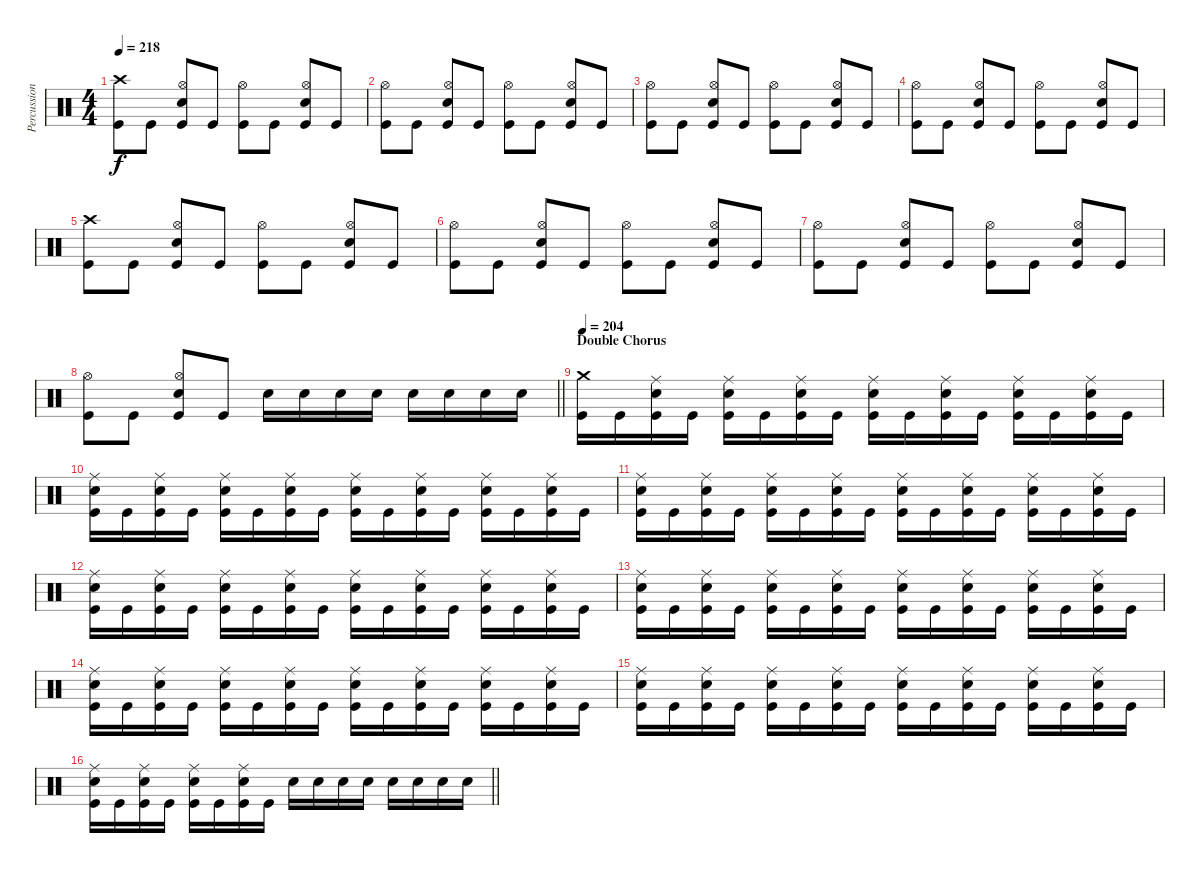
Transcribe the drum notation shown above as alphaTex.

\track ("Percussion" "Percussion") {instrument percussion}
\staff {score}
\articulation defaults
\ts (4 4)
\tempo 218
\clef neutral
\ks c
("Crash high (hit)" "Kick (hit)").8{dy f} "Kick (hit)".8 ("Hi-Hat (open)" "Electric Snare (hit)" "Kick (hit)").8 "Kick (hit)".8 ("Hi-Hat (open)" "Kick (hit)").8 "Kick (hit)".8 ("Hi-Hat (open)" "Electric Snare (hit)" "Kick (hit)").8 "Kick (hit)".8 |
("Hi-Hat (open)" "Kick (hit)").8 "Kick (hit)".8 ("Hi-Hat (open)" "Electric Snare (hit)" "Kick (hit)").8 "Kick (hit)".8 ("Hi-Hat (open)" "Kick (hit)").8 "Kick (hit)".8 ("Hi-Hat (open)" "Electric Snare (hit)" "Kick (hit)").8 "Kick (hit)".8 |
("Hi-Hat (open)" "Kick (hit)").8 "Kick (hit)".8 ("Hi-Hat (open)" "Electric Snare (hit)" "Kick (hit)").8 "Kick (hit)".8 ("Hi-Hat (open)" "Kick (hit)").8 "Kick (hit)".8 ("Hi-Hat (open)" "Electric Snare (hit)" "Kick (hit)").8 "Kick (hit)".8 |
("Hi-Hat (open)" "Kick (hit)").8 "Kick (hit)".8 ("Hi-Hat (open)" "Electric Snare (hit)" "Kick (hit)").8 "Kick (hit)".8 ("Hi-Hat (open)" "Kick (hit)").8 "Kick (hit)".8 ("Hi-Hat (open)" "Electric Snare (hit)" "Kick (hit)").8 "Kick (hit)".8 |
("Crash high (hit)" "Kick (hit)").8 "Kick (hit)".8 ("Hi-Hat (open)" "Electric Snare (hit)" "Kick (hit)").8 "Kick (hit)".8 ("Hi-Hat (open)" "Kick (hit)").8 "Kick (hit)".8 ("Hi-Hat (open)" "Electric Snare (hit)" "Kick (hit)").8 "Kick (hit)".8 |
("Hi-Hat (open)" "Kick (hit)").8 "Kick (hit)".8 ("Hi-Hat (open)" "Electric Snare (hit)" "Kick (hit)").8 "Kick (hit)".8 ("Hi-Hat (open)" "Kick (hit)").8 "Kick (hit)".8 ("Hi-Hat (open)" "Electric Snare (hit)" "Kick (hit)").8 "Kick (hit)".8 |
("Hi-Hat (open)" "Kick (hit)").8 "Kick (hit)".8 ("Hi-Hat (open)" "Electric Snare (hit)" "Kick (hit)").8 "Kick (hit)".8 ("Hi-Hat (open)" "Kick (hit)").8 "Kick (hit)".8 ("Hi-Hat (open)" "Electric Snare (hit)" "Kick (hit)").8 "Kick (hit)".8 |
\barLineRight lightlight
("Hi-Hat (open)" "Kick (hit)").8 "Kick (hit)".8 ("Hi-Hat (open)" "Electric Snare (hit)" "Kick (hit)").8 "Kick (hit)".8 "Electric Snare (hit)".16 "Electric Snare (hit)".16 "Electric Snare (hit)".16 "Electric Snare (hit)".16 "Electric Snare (hit)".16 "Electric Snare (hit)".16 "Electric Snare (hit)".16 "Electric Snare (hit)".16 |
\section ("" "Double Chorus")
\tempo 204
("Crash medium (hit)" "Kick (hit)").16 "Kick (hit)".16 ("Ride (middle)" "Electric Snare (hit)" "Kick (hit)").16 "Kick (hit)".16 ("Ride (middle)" "Electric Snare (hit)" "Kick (hit)").16 "Kick (hit)".16 ("Ride (middle)" "Electric Snare (hit)" "Kick (hit)").16 "Kick (hit)".16 ("Ride (middle)" "Electric Snare (hit)" "Kick (hit)").16 "Kick (hit)".16 ("Ride (middle)" "Electric Snare (hit)" "Kick (hit)").16 "Kick (hit)".16 ("Ride (middle)" "Electric Snare (hit)" "Kick (hit)").16 "Kick (hit)".16 ("Ride (middle)" "Electric Snare (hit)" "Kick (hit)").16 "Kick (hit)".16 |
("Ride (middle)" "Electric Snare (hit)" "Kick (hit)").16 "Kick (hit)".16 ("Ride (middle)" "Electric Snare (hit)" "Kick (hit)").16 "Kick (hit)".16 ("Ride (middle)" "Electric Snare (hit)" "Kick (hit)").16 "Kick (hit)".16 ("Ride (middle)" "Electric Snare (hit)" "Kick (hit)").16 "Kick (hit)".16 ("Ride (middle)" "Electric Snare (hit)" "Kick (hit)").16 "Kick (hit)".16 ("Ride (middle)" "Electric Snare (hit)" "Kick (hit)").16 "Kick (hit)".16 ("Ride (middle)" "Electric Snare (hit)" "Kick (hit)").16 "Kick (hit)".16 ("Ride (middle)" "Electric Snare (hit)" "Kick (hit)").16 "Kick (hit)".16 |
("Ride (middle)" "Electric Snare (hit)" "Kick (hit)").16 "Kick (hit)".16 ("Ride (middle)" "Electric Snare (hit)" "Kick (hit)").16 "Kick (hit)".16 ("Ride (middle)" "Electric Snare (hit)" "Kick (hit)").16 "Kick (hit)".16 ("Ride (middle)" "Electric Snare (hit)" "Kick (hit)").16 "Kick (hit)".16 ("Ride (middle)" "Electric Snare (hit)" "Kick (hit)").16 "Kick (hit)".16 ("Ride (middle)" "Electric Snare (hit)" "Kick (hit)").16 "Kick (hit)".16 ("Ride (middle)" "Electric Snare (hit)" "Kick (hit)").16 "Kick (hit)".16 ("Ride (middle)" "Electric Snare (hit)" "Kick (hit)").16 "Kick (hit)".16 |
("Ride (middle)" "Electric Snare (hit)" "Kick (hit)").16 "Kick (hit)".16 ("Ride (middle)" "Electric Snare (hit)" "Kick (hit)").16 "Kick (hit)".16 ("Ride (middle)" "Electric Snare (hit)" "Kick (hit)").16 "Kick (hit)".16 ("Ride (middle)" "Electric Snare (hit)" "Kick (hit)").16 "Kick (hit)".16 ("Ride (middle)" "Electric Snare (hit)" "Kick (hit)").16 "Kick (hit)".16 ("Ride (middle)" "Electric Snare (hit)" "Kick (hit)").16 "Kick (hit)".16 ("Ride (middle)" "Electric Snare (hit)" "Kick (hit)").16 "Kick (hit)".16 ("Ride (middle)" "Electric Snare (hit)" "Kick (hit)").16 "Kick (hit)".16 |
("Ride (middle)" "Electric Snare (hit)" "Kick (hit)").16 "Kick (hit)".16 ("Ride (middle)" "Electric Snare (hit)" "Kick (hit)").16 "Kick (hit)".16 ("Ride (middle)" "Electric Snare (hit)" "Kick (hit)").16 "Kick (hit)".16 ("Ride (middle)" "Electric Snare (hit)" "Kick (hit)").16 "Kick (hit)".16 ("Ride (middle)" "Electric Snare (hit)" "Kick (hit)").16 "Kick (hit)".16 ("Ride (middle)" "Electric Snare (hit)" "Kick (hit)").16 "Kick (hit)".16 ("Ride (middle)" "Electric Snare (hit)" "Kick (hit)").16 "Kick (hit)".16 ("Ride (middle)" "Electric Snare (hit)" "Kick (hit)").16 "Kick (hit)".16 |
("Ride (middle)" "Electric Snare (hit)" "Kick (hit)").16 "Kick (hit)".16 ("Ride (middle)" "Electric Snare (hit)" "Kick (hit)").16 "Kick (hit)".16 ("Ride (middle)" "Electric Snare (hit)" "Kick (hit)").16 "Kick (hit)".16 ("Ride (middle)" "Electric Snare (hit)" "Kick (hit)").16 "Kick (hit)".16 ("Ride (middle)" "Electric Snare (hit)" "Kick (hit)").16 "Kick (hit)".16 ("Ride (middle)" "Electric Snare (hit)" "Kick (hit)").16 "Kick (hit)".16 ("Ride (middle)" "Electric Snare (hit)" "Kick (hit)").16 "Kick (hit)".16 ("Ride (middle)" "Electric Snare (hit)" "Kick (hit)").16 "Kick (hit)".16 |
("Ride (middle)" "Electric Snare (hit)" "Kick (hit)").16 "Kick (hit)".16 ("Ride (middle)" "Electric Snare (hit)" "Kick (hit)").16 "Kick (hit)".16 ("Ride (middle)" "Electric Snare (hit)" "Kick (hit)").16 "Kick (hit)".16 ("Ride (middle)" "Electric Snare (hit)" "Kick (hit)").16 "Kick (hit)".16 ("Ride (middle)" "Electric Snare (hit)" "Kick (hit)").16 "Kick (hit)".16 ("Ride (middle)" "Electric Snare (hit)" "Kick (hit)").16 "Kick (hit)".16 ("Ride (middle)" "Electric Snare (hit)" "Kick (hit)").16 "Kick (hit)".16 ("Ride (middle)" "Electric Snare (hit)" "Kick (hit)").16 "Kick (hit)".16 |
\barLineRight lightlight
("Ride (middle)" "Electric Snare (hit)" "Kick (hit)").16 "Kick (hit)".16 ("Ride (middle)" "Electric Snare (hit)" "Kick (hit)").16 "Kick (hit)".16 ("Ride (middle)" "Electric Snare (hit)" "Kick (hit)").16 "Kick (hit)".16 ("Ride (middle)" "Electric Snare (hit)" "Kick (hit)").16 "Kick (hit)".16 "Electric Snare (hit)".16 "Electric Snare (hit)".16 "Electric Snare (hit)".16 "Electric Snare (hit)".16 "Electric Snare (hit)".16 "Electric Snare (hit)".16 "Electric Snare (hit)".16 "Electric Snare (hit)".16
